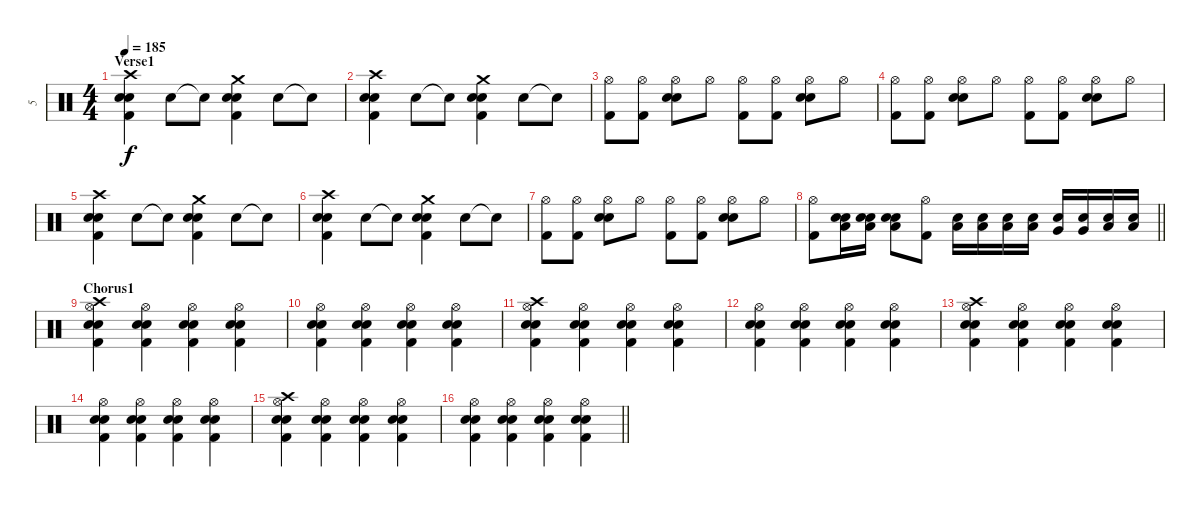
\track ("5" "5") {instrument percussion}
\staff {score}
\articulation defaults
\ts (4 4)
\section ("" "Verse1")
\tempo 185
\clef neutral
\ks c
("Crash high (hit)" "Electric Snare (hit)" "Snare (hit) 2" "Kick (hit) 2").4{dy f} "Electric Snare (hit)".8 "Electric Snare (hit)"{t}.8 ("Crash medium (hit)" "Electric Snare (hit)" "Snare (hit) 2" "Kick (hit) 2").4 "Electric Snare (hit)".8 "Electric Snare (hit)"{t}.8 |
("Crash high (hit)" "Electric Snare (hit)" "Snare (hit) 2" "Kick (hit) 2").4 "Electric Snare (hit)".8 "Electric Snare (hit)"{t}.8 ("Crash medium (hit)" "Electric Snare (hit)" "Snare (hit) 2" "Kick (hit) 2").4 "Electric Snare (hit)".8 "Electric Snare (hit)"{t}.8 |
("Kick (hit) 2" "Hi-Hat (open)").8 ("Kick (hit) 2" "Hi-Hat (open)").8 ("Snare (hit) 2" "Electric Snare (hit)" "Hi-Hat (open)").8 "Hi-Hat (open)".8 ("Kick (hit) 2" "Hi-Hat (open)").8 ("Kick (hit) 2" "Hi-Hat (open)").8 ("Snare (hit) 2" "Electric Snare (hit)" "Hi-Hat (open)").8 "Hi-Hat (open)".8 |
("Kick (hit) 2" "Hi-Hat (open)").8 ("Kick (hit) 2" "Hi-Hat (open)").8 ("Snare (hit) 2" "Electric Snare (hit)" "Hi-Hat (open)").8 "Hi-Hat (open)".8 ("Kick (hit) 2" "Hi-Hat (open)").8 ("Kick (hit) 2" "Hi-Hat (open)").8 ("Snare (hit) 2" "Electric Snare (hit)" "Hi-Hat (open)").8 "Hi-Hat (open)".8 |
("Crash high (hit)" "Electric Snare (hit)" "Snare (hit) 2" "Kick (hit) 2").4 "Electric Snare (hit)".8 "Electric Snare (hit)"{t}.8 ("Crash medium (hit)" "Electric Snare (hit)" "Snare (hit) 2" "Kick (hit) 2").4 "Electric Snare (hit)".8 "Electric Snare (hit)"{t}.8 |
("Crash high (hit)" "Electric Snare (hit)" "Snare (hit) 2" "Kick (hit) 2").4 "Electric Snare (hit)".8 "Electric Snare (hit)"{t}.8 ("Crash medium (hit)" "Electric Snare (hit)" "Snare (hit) 2" "Kick (hit) 2").4 "Electric Snare (hit)".8 "Electric Snare (hit)"{t}.8 |
("Kick (hit) 2" "Hi-Hat (open)").8 ("Kick (hit) 2" "Hi-Hat (open)").8 ("Snare (hit) 2" "Electric Snare (hit)" "Hi-Hat (open)").8 "Hi-Hat (open)".8 ("Kick (hit) 2" "Hi-Hat (open)").8 ("Kick (hit) 2" "Hi-Hat (open)").8 ("Snare (hit) 2" "Electric Snare (hit)" "Hi-Hat (open)").8 "Hi-Hat (open)".8 |
\barLineRight lightlight
("Kick (hit) 2" "Hi-Hat (open)").8 ("Low Tom (hit)" "Snare (hit) 2" "Electric Snare (hit)").16 ("Low Tom (hit)" "Snare (hit) 2" "Electric Snare (hit)").16 ("Low Tom (hit)" "Snare (hit) 2" "Electric Snare (hit)").8 ("Kick (hit) 2" "Hi-Hat (open)").8 ("Low Tom (hit)" "Snare (hit) 2").16 ("Low Tom (hit)" "Snare (hit) 2").16 ("Low Tom (hit)" "Snare (hit) 2").16 ("Low Tom (hit)" "Snare (hit) 2").16 ("Very Low Tom (hit)" "Snare (hit) 2").16 ("Very Low Tom (hit)" "Snare (hit) 2").16 ("Low Floor Tom (hit)" "Snare (hit) 2").16 ("Low Floor Tom (hit)" "Snare (hit) 2").16 |
\section ("" "Chorus1")
("Crash high (hit)" "Hi-Hat (open)" "Kick (hit) 2" "Snare (hit) 2" "Electric Snare (hit)").4 ("Hi-Hat (open)" "Kick (hit) 2" "Snare (hit) 2" "Electric Snare (hit)").4 ("Hi-Hat (open)" "Kick (hit) 2" "Snare (hit) 2" "Electric Snare (hit)").4 ("Hi-Hat (open)" "Kick (hit) 2" "Snare (hit) 2" "Electric Snare (hit)").4 |
("Hi-Hat (open)" "Kick (hit) 2" "Snare (hit) 2" "Electric Snare (hit)").4 ("Hi-Hat (open)" "Kick (hit) 2" "Snare (hit) 2" "Electric Snare (hit)").4 ("Hi-Hat (open)" "Kick (hit) 2" "Snare (hit) 2" "Electric Snare (hit)").4 ("Hi-Hat (open)" "Kick (hit) 2" "Snare (hit) 2" "Electric Snare (hit)").4 |
("Crash high (hit)" "Hi-Hat (open)" "Kick (hit) 2" "Snare (hit) 2" "Electric Snare (hit)").4 ("Hi-Hat (open)" "Kick (hit) 2" "Snare (hit) 2" "Electric Snare (hit)").4 ("Hi-Hat (open)" "Kick (hit) 2" "Snare (hit) 2" "Electric Snare (hit)").4 ("Hi-Hat (open)" "Kick (hit) 2" "Snare (hit) 2" "Electric Snare (hit)").4 |
("Hi-Hat (open)" "Kick (hit) 2" "Snare (hit) 2" "Electric Snare (hit)").4 ("Hi-Hat (open)" "Kick (hit) 2" "Snare (hit) 2" "Electric Snare (hit)").4 ("Hi-Hat (open)" "Kick (hit) 2" "Snare (hit) 2" "Electric Snare (hit)").4 ("Hi-Hat (open)" "Kick (hit) 2" "Snare (hit) 2" "Electric Snare (hit)").4 |
("Crash high (hit)" "Hi-Hat (open)" "Kick (hit) 2" "Snare (hit) 2" "Electric Snare (hit)").4 ("Hi-Hat (open)" "Kick (hit) 2" "Snare (hit) 2" "Electric Snare (hit)").4 ("Hi-Hat (open)" "Kick (hit) 2" "Snare (hit) 2" "Electric Snare (hit)").4 ("Hi-Hat (open)" "Kick (hit) 2" "Snare (hit) 2" "Electric Snare (hit)").4 |
("Hi-Hat (open)" "Kick (hit) 2" "Snare (hit) 2" "Electric Snare (hit)").4 ("Hi-Hat (open)" "Kick (hit) 2" "Snare (hit) 2" "Electric Snare (hit)").4 ("Hi-Hat (open)" "Kick (hit) 2" "Snare (hit) 2" "Electric Snare (hit)").4 ("Hi-Hat (open)" "Kick (hit) 2" "Snare (hit) 2" "Electric Snare (hit)").4 |
("Crash high (hit)" "Hi-Hat (open)" "Kick (hit) 2" "Snare (hit) 2" "Electric Snare (hit)").4 ("Hi-Hat (open)" "Kick (hit) 2" "Snare (hit) 2" "Electric Snare (hit)").4 ("Hi-Hat (open)" "Kick (hit) 2" "Snare (hit) 2" "Electric Snare (hit)").4 ("Hi-Hat (open)" "Kick (hit) 2" "Snare (hit) 2" "Electric Snare (hit)").4 |
\barLineRight lightlight
("Hi-Hat (open)" "Kick (hit) 2" "Snare (hit) 2" "Electric Snare (hit)").4 ("Hi-Hat (open)" "Kick (hit) 2" "Snare (hit) 2" "Electric Snare (hit)").4 ("Hi-Hat (open)" "Kick (hit) 2" "Snare (hit) 2" "Electric Snare (hit)").4 ("Hi-Hat (open)" "Kick (hit) 2" "Snare (hit) 2" "Electric Snare (hit)").4
